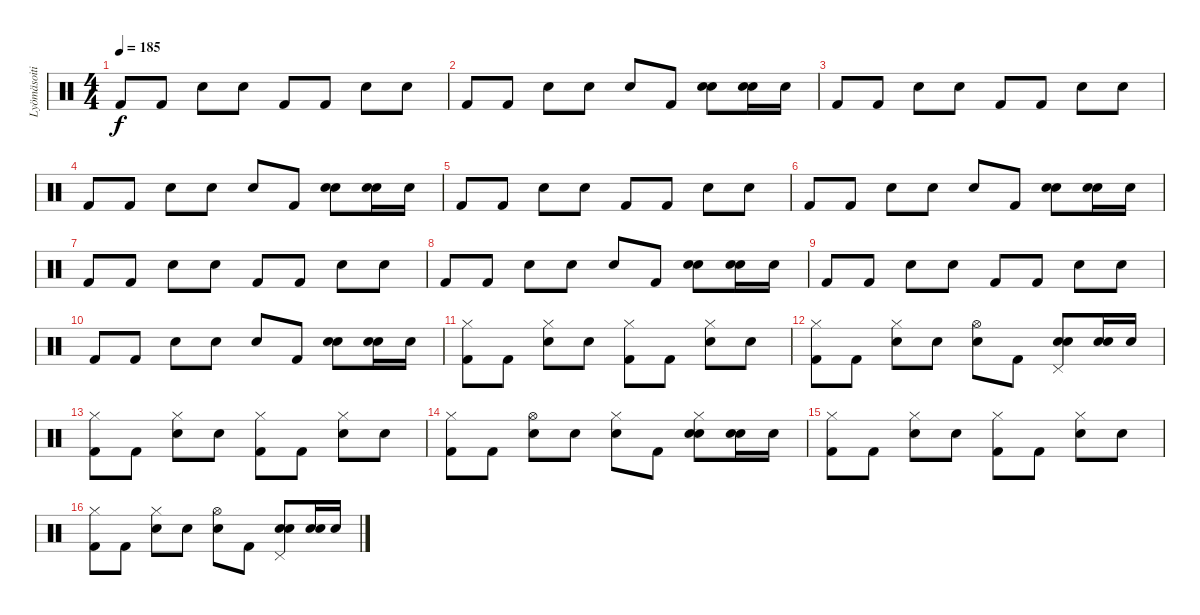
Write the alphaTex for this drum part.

\track ("Lyömäsoitin" "Lyömäsoiti") {instrument percussion}
\staff {score}
\articulation defaults
\ts (4 4)
\tempo 185
\clef neutral
\ks c "Kick (hit) 2".8{dy f} "Kick (hit) 2".8 "Electric Snare (hit)".8 "Snare (hit)".8 "Kick (hit) 2".8 "Kick (hit) 2".8 "Electric Snare (hit)".8 "Snare (hit)".8
|
"Kick (hit) 2".8 "Kick (hit) 2".8 "Snare (hit)".8 "Electric Snare (hit)".8 "Snare (hit)".8 "Kick (hit) 2".8 ("Electric Snare (hit)" "Snare (hit)").8 ("Snare (hit)" "Snare (hit)").16 "Snare (hit)".16 |
"Kick (hit) 2".8 "Kick (hit) 2".8 "Electric Snare (hit)".8 "Snare (hit)".8 "Kick (hit) 2".8 "Kick (hit) 2".8 "Electric Snare (hit)".8 "Snare (hit)".8 |
"Kick (hit) 2".8 "Kick (hit) 2".8 "Snare (hit)".8 "Electric Snare (hit)".8 "Snare (hit)".8 "Kick (hit) 2".8 ("Electric Snare (hit)" "Snare (hit)").8 ("Electric Snare (hit)" "Snare (hit)").16 "Electric Snare (hit)".16 |
"Kick (hit) 2".8 "Kick (hit) 2".8 "Electric Snare (hit)".8 "Snare (hit)".8 "Kick (hit) 2".8 "Kick (hit) 2".8 "Electric Snare (hit)".8 "Snare (hit)".8 |
"Kick (hit) 2".8 "Kick (hit) 2".8 "Snare (hit)".8 "Electric Snare (hit)".8 "Snare (hit)".8 "Kick (hit) 2".8 ("Electric Snare (hit)" "Snare (hit)").8 ("Snare (hit)" "Snare (hit)").16 "Snare (hit)".16 |
"Kick (hit) 2".8 "Kick (hit) 2".8 "Electric Snare (hit)".8 "Snare (hit)".8 "Kick (hit) 2".8 "Kick (hit) 2".8 "Electric Snare (hit)".8 "Snare (hit)".8 |
"Kick (hit) 2".8 "Kick (hit) 2".8 "Snare (hit)".8 "Electric Snare (hit)".8 "Snare (hit)".8 "Kick (hit) 2".8 ("Electric Snare (hit)" "Snare (hit)").8 ("Electric Snare (hit)" "Snare (hit)").16 "Electric Snare (hit)".16 |
"Kick (hit) 2".8 "Kick (hit) 2".8 "Electric Snare (hit)".8 "Snare (hit)".8 "Kick (hit) 2".8 "Kick (hit) 2".8 "Electric Snare (hit)".8 "Snare (hit)".8 |
"Kick (hit) 2".8 "Kick (hit) 2".8 "Snare (hit)".8 "Electric Snare (hit)".8 "Snare (hit)".8 "Kick (hit) 2".8 ("Electric Snare (hit)" "Snare (hit)").8 ("Snare (hit)" "Snare (hit)").16 "Snare (hit)".16 |
("Hi-Hat (closed)" "Kick (hit) 2").8 "Kick (hit) 2".8 ("Hi-Hat (closed)" "Electric Snare (hit)").8 "Snare (hit)".8 ("Hi-Hat (closed)" "Kick (hit) 2").8 "Kick (hit) 2".8 ("Hi-Hat (closed)" "Electric Snare (hit)").8 "Snare (hit)".8 |
("Hi-Hat (closed)" "Kick (hit) 2").8 "Kick (hit) 2".8 ("Hi-Hat (closed)" "Snare (hit)").8 "Electric Snare (hit)".8 ("Hi-Hat (open)" "Snare (hit)").8 "Kick (hit) 2".8 ("Pedal Hi-Hat (hit)" "Electric Snare (hit)" "Snare (hit)").8 ("Electric Snare (hit)" "Snare (hit)").16 "Electric Snare (hit)".16 |
("Hi-Hat (closed)" "Kick (hit) 2").8 "Kick (hit) 2".8 ("Hi-Hat (closed)" "Electric Snare (hit)").8 "Snare (hit)".8 ("Hi-Hat (closed)" "Kick (hit) 2").8 "Kick (hit) 2".8 ("Hi-Hat (closed)" "Electric Snare (hit)").8 "Snare (hit)".8 |
("Hi-Hat (closed)" "Kick (hit) 2").8 "Kick (hit) 2".8 ("Hi-Hat (open)" "Snare (hit)").8 "Electric Snare (hit)".8 ("Hi-Hat (closed)" "Snare (hit)").8 "Kick (hit) 2".8 ("Hi-Hat (closed)" "Electric Snare (hit)" "Snare (hit)").8 ("Snare (hit)" "Snare (hit)").16 "Snare (hit)".16 |
("Hi-Hat (closed)" "Kick (hit) 2").8 "Kick (hit) 2".8 ("Hi-Hat (closed)" "Electric Snare (hit)").8 "Snare (hit)".8 ("Hi-Hat (closed)" "Kick (hit) 2").8 "Kick (hit) 2".8 ("Hi-Hat (closed)" "Electric Snare (hit)").8 "Snare (hit)".8 |
("Hi-Hat (closed)" "Kick (hit) 2").8 "Kick (hit) 2".8 ("Hi-Hat (closed)" "Snare (hit)").8 "Electric Snare (hit)".8 ("Hi-Hat (open)" "Snare (hit)").8 "Kick (hit) 2".8 ("Pedal Hi-Hat (hit)" "Electric Snare (hit)" "Snare (hit)").8 ("Electric Snare (hit)" "Snare (hit)").16 "Electric Snare (hit)".16
